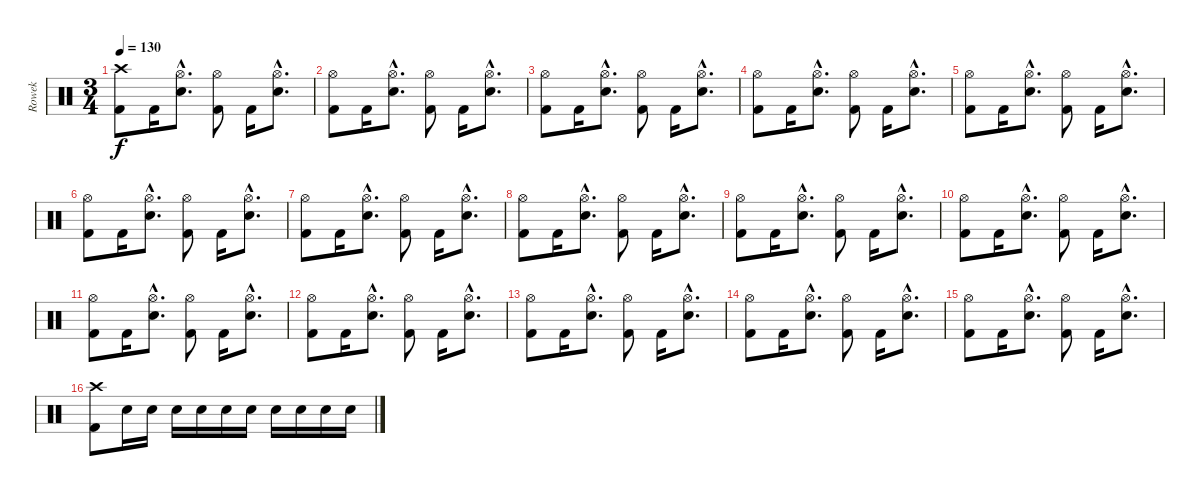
\track ("Rowek" "Rowek") {instrument percussion}
\staff {score}
\articulation defaults
\ts (3 4)
\tempo 130
\clef neutral
\ks c
("Crash high (hit)" "Kick (hit) 2").8{dy f} "Kick (hit) 2".16 ("Hi-Hat (open)"{hac} "Snare (hit) 2"{hac}).8{d} ("Hi-Hat (open)" "Kick (hit) 2").8 "Kick (hit) 2".16 ("Hi-Hat (open)"{hac} "Snare (hit) 2"{hac}).8{d} |
("Hi-Hat (open)" "Kick (hit) 2").8 "Kick (hit) 2".16 ("Hi-Hat (open)"{hac} "Snare (hit) 2"{hac}).8{d} ("Hi-Hat (open)" "Kick (hit) 2").8 "Kick (hit) 2".16 ("Hi-Hat (open)"{hac} "Snare (hit) 2"{hac}).8{d} |
("Hi-Hat (open)" "Kick (hit) 2").8 "Kick (hit) 2".16 ("Hi-Hat (open)"{hac} "Snare (hit) 2"{hac}).8{d} ("Hi-Hat (open)" "Kick (hit) 2").8 "Kick (hit) 2".16 ("Hi-Hat (open)"{hac} "Snare (hit) 2"{hac}).8{d} |
("Hi-Hat (open)" "Kick (hit) 2").8 "Kick (hit) 2".16 ("Hi-Hat (open)"{hac} "Snare (hit) 2"{hac}).8{d} ("Hi-Hat (open)" "Kick (hit) 2").8 "Kick (hit) 2".16 ("Hi-Hat (open)"{hac} "Snare (hit) 2"{hac}).8{d} |
("Hi-Hat (open)" "Kick (hit) 2").8 "Kick (hit) 2".16 ("Hi-Hat (open)"{hac} "Snare (hit) 2"{hac}).8{d} ("Hi-Hat (open)" "Kick (hit) 2").8 "Kick (hit) 2".16 ("Hi-Hat (open)"{hac} "Snare (hit) 2"{hac}).8{d} |
("Hi-Hat (open)" "Kick (hit) 2").8 "Kick (hit) 2".16 ("Hi-Hat (open)"{hac} "Snare (hit) 2"{hac}).8{d} ("Hi-Hat (open)" "Kick (hit) 2").8 "Kick (hit) 2".16 ("Hi-Hat (open)"{hac} "Snare (hit) 2"{hac}).8{d} |
("Hi-Hat (open)" "Kick (hit) 2").8 "Kick (hit) 2".16 ("Hi-Hat (open)"{hac} "Snare (hit) 2"{hac}).8{d} ("Hi-Hat (open)" "Kick (hit) 2").8 "Kick (hit) 2".16 ("Hi-Hat (open)"{hac} "Snare (hit) 2"{hac}).8{d} |
("Hi-Hat (open)" "Kick (hit) 2").8 "Kick (hit) 2".16 ("Hi-Hat (open)"{hac} "Snare (hit) 2"{hac}).8{d} ("Hi-Hat (open)" "Kick (hit) 2").8 "Kick (hit) 2".16 ("Hi-Hat (open)"{hac} "Snare (hit) 2"{hac}).8{d} |
("Hi-Hat (open)" "Kick (hit) 2").8 "Kick (hit) 2".16 ("Hi-Hat (open)"{hac} "Snare (hit) 2"{hac}).8{d} ("Hi-Hat (open)" "Kick (hit) 2").8 "Kick (hit) 2".16 ("Hi-Hat (open)"{hac} "Snare (hit) 2"{hac}).8{d} |
("Hi-Hat (open)" "Kick (hit) 2").8 "Kick (hit) 2".16 ("Hi-Hat (open)"{hac} "Snare (hit) 2"{hac}).8{d} ("Hi-Hat (open)" "Kick (hit) 2").8 "Kick (hit) 2".16 ("Hi-Hat (open)"{hac} "Snare (hit) 2"{hac}).8{d} |
("Hi-Hat (open)" "Kick (hit) 2").8 "Kick (hit) 2".16 ("Hi-Hat (open)"{hac} "Snare (hit) 2"{hac}).8{d} ("Hi-Hat (open)" "Kick (hit) 2").8 "Kick (hit) 2".16 ("Hi-Hat (open)"{hac} "Snare (hit) 2"{hac}).8{d} |
("Hi-Hat (open)" "Kick (hit) 2").8 "Kick (hit) 2".16 ("Hi-Hat (open)"{hac} "Snare (hit) 2"{hac}).8{d} ("Hi-Hat (open)" "Kick (hit) 2").8 "Kick (hit) 2".16 ("Hi-Hat (open)"{hac} "Snare (hit) 2"{hac}).8{d} |
("Hi-Hat (open)" "Kick (hit) 2").8 "Kick (hit) 2".16 ("Hi-Hat (open)"{hac} "Snare (hit) 2"{hac}).8{d} ("Hi-Hat (open)" "Kick (hit) 2").8 "Kick (hit) 2".16 ("Hi-Hat (open)"{hac} "Snare (hit) 2"{hac}).8{d} |
("Hi-Hat (open)" "Kick (hit) 2").8 "Kick (hit) 2".16 ("Hi-Hat (open)"{hac} "Snare (hit) 2"{hac}).8{d} ("Hi-Hat (open)" "Kick (hit) 2").8 "Kick (hit) 2".16 ("Hi-Hat (open)"{hac} "Snare (hit) 2"{hac}).8{d} |
("Hi-Hat (open)" "Kick (hit) 2").8 "Kick (hit) 2".16 ("Hi-Hat (open)"{hac} "Snare (hit) 2"{hac}).8{d} ("Hi-Hat (open)" "Kick (hit) 2").8 "Kick (hit) 2".16 ("Hi-Hat (open)"{hac} "Snare (hit) 2"{hac}).8{d} |
("Crash high (hit)" "Kick (hit) 2").8 "Electric Snare (hit)".16 "Electric Snare (hit)".16 "Electric Snare (hit)".16 "Electric Snare (hit)".16 "Electric Snare (hit)".16 "Electric Snare (hit)".16 "Electric Snare (hit)".16 "Electric Snare (hit)".16 "Electric Snare (hit)".16 "Electric Snare (hit)".16
